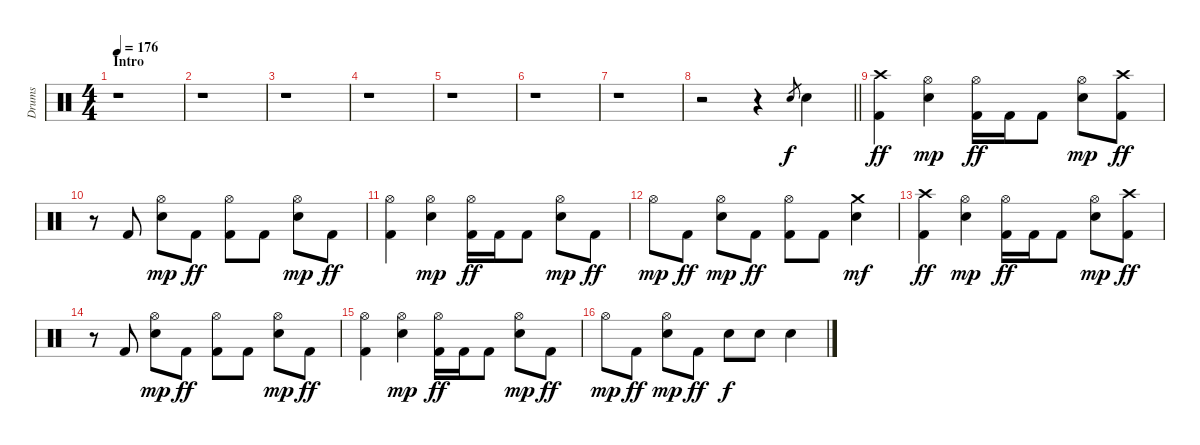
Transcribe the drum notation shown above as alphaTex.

\track ("Drums" "Drums") {instrument percussion}
\staff {score}
\articulation defaults
\ts (4 4)
\section ("" "Intro")
\tempo 176
\clef neutral
\ks c
r.1{dy f} |
r.1 |
r.1 |
r.1 |
r.1 |
r.1 |
r.1 |
\barLineRight lightlight
r.2 r.4 "Electric Snare (hit)".8{gr} "Electric Snare (hit)".4 |
\section ("" "")
("Crash high (hit)" "Kick (hit) 2").4{dy ff} ("Hi-Hat (open)" "Electric Snare (hit)").4{dy mp} ("Hi-Hat (open)" "Kick (hit) 2").16{dy ff} "Kick (hit) 2".16 "Kick (hit) 2".8 ("Hi-Hat (open)" "Electric Snare (hit)").8{dy mp} ("Crash high (hit)" "Kick (hit) 2").8{dy ff} |
r.8 "Kick (hit) 2".8 ("Hi-Hat (open)" "Electric Snare (hit)").8{dy mp} "Kick (hit) 2".8{dy ff} ("Hi-Hat (open)" "Kick (hit) 2").8 "Kick (hit) 2".8 ("Hi-Hat (open)" "Electric Snare (hit)").8{dy mp} "Kick (hit) 2".8{dy ff} |
("Hi-Hat (open)" "Kick (hit) 2").4 ("Hi-Hat (open)" "Electric Snare (hit)").4{dy mp} ("Hi-Hat (open)" "Kick (hit) 2").16{dy ff} "Kick (hit) 2".16 "Kick (hit) 2".8 ("Hi-Hat (open)" "Electric Snare (hit)").8{dy mp} "Kick (hit) 2".8{dy ff} |
"Hi-Hat (open)".8{dy mp} "Kick (hit) 2".8{dy ff} ("Hi-Hat (open)" "Electric Snare (hit)").8{dy mp} "Kick (hit) 2".8{dy ff} ("Hi-Hat (open)" "Kick (hit) 2").8 "Kick (hit) 2".8 ("Crash medium (hit)" "Electric Snare (hit)").4{dy mf} |
("Crash high (hit)" "Kick (hit) 2").4{dy ff} ("Hi-Hat (open)" "Electric Snare (hit)").4{dy mp} ("Hi-Hat (open)" "Kick (hit) 2").16{dy ff} "Kick (hit) 2".16 "Kick (hit) 2".8 ("Hi-Hat (open)" "Electric Snare (hit)").8{dy mp} ("Crash high (hit)" "Kick (hit) 2").8{dy ff} |
r.8 "Kick (hit) 2".8 ("Hi-Hat (open)" "Electric Snare (hit)").8{dy mp} "Kick (hit) 2".8{dy ff} ("Hi-Hat (open)" "Kick (hit) 2").8 "Kick (hit) 2".8 ("Hi-Hat (open)" "Electric Snare (hit)").8{dy mp} "Kick (hit) 2".8{dy ff} |
("Hi-Hat (open)" "Kick (hit) 2").4 ("Hi-Hat (open)" "Electric Snare (hit)").4{dy mp} ("Hi-Hat (open)" "Kick (hit) 2").16{dy ff} "Kick (hit) 2".16 "Kick (hit) 2".8 ("Hi-Hat (open)" "Electric Snare (hit)").8{dy mp} "Kick (hit) 2".8{dy ff} |
"Hi-Hat (open)".8{dy mp} "Kick (hit) 2".8{dy ff} ("Hi-Hat (open)" "Electric Snare (hit)").8{dy mp} "Kick (hit) 2".8{dy ff} "Electric Snare (hit)".8{dy f} "Electric Snare (hit)".8 "Electric Snare (hit)".4
